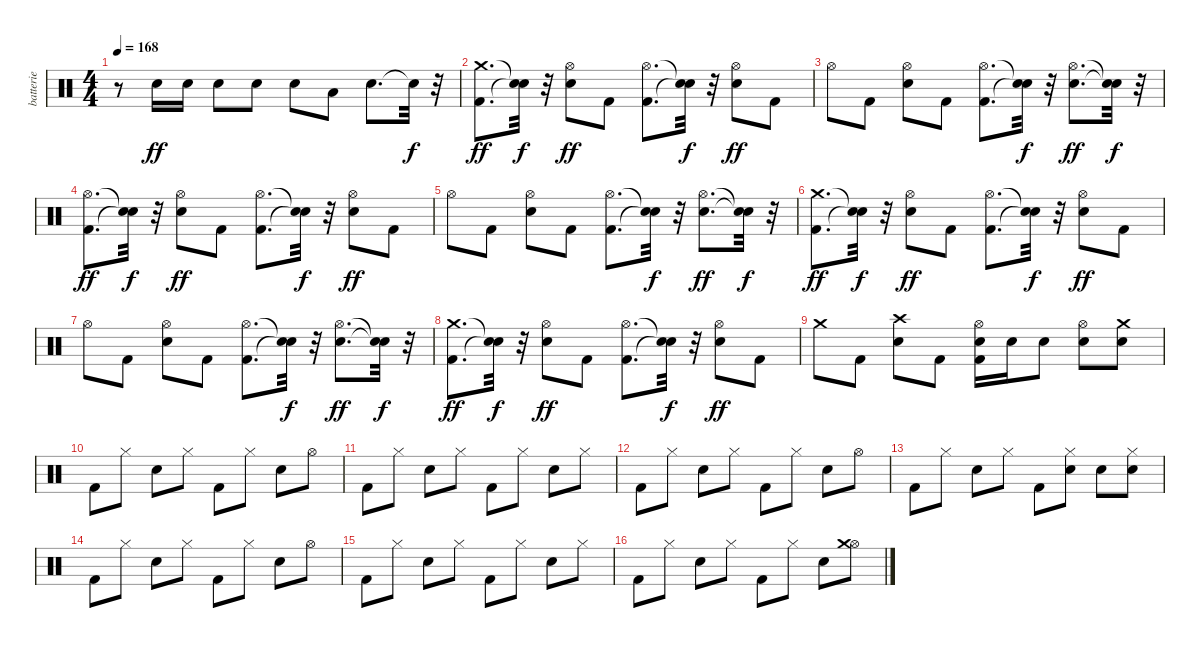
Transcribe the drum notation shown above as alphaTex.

\track ("batterie" "batterie") {instrument percussion}
\staff {score}
\articulation defaults
\ts (4 4)
\tempo 168
\clef neutral
\ks c
r.8{dy ff} "Electric Snare (hit)".16 "Electric Snare (hit)".16 "Electric Snare (hit)".8 "Electric Snare (hit)".8 "Electric Snare (hit)".8 "Low Floor Tom (hit)".8 "Electric Snare (hit)".8{d} "Snare (hit)"{t}.32{dy f} r.32 |
("Kick (hit) 2" "Crash medium (hit)").8{d dy ff} ("Snare (hit)"{t} "Snare (hit)"{t}).32{dy f} r.32 ("Electric Snare (hit)" "Hi-Hat (open)").8{dy ff} "Kick (hit) 2".8 ("Kick (hit) 2" "Hi-Hat (open)").8{d} ("Snare (hit)"{t} "Snare (hit)"{t}).32{dy f} r.32 ("Electric Snare (hit)" "Hi-Hat (open)").8{dy ff} "Kick (hit) 2".8 |
"Hi-Hat (open)".8 "Kick (hit) 2".8 ("Electric Snare (hit)" "Hi-Hat (open)").8 "Kick (hit) 2".8 ("Kick (hit) 2" "Hi-Hat (open)").8{d} ("Snare (hit)"{t} "Snare (hit)"{t}).32{dy f} r.32 ("Electric Snare (hit)" "Hi-Hat (open)").8{d dy ff} ("Snare (hit)"{t} "Snare (hit)"{t}).32{dy f} r.32 |
("Kick (hit) 2" "Hi-Hat (open)").8{d dy ff} ("Snare (hit)"{t} "Snare (hit)"{t}).32{dy f} r.32 ("Electric Snare (hit)" "Hi-Hat (open)").8{dy ff} "Kick (hit) 2".8 ("Kick (hit) 2" "Hi-Hat (open)").8{d} ("Snare (hit)"{t} "Snare (hit)"{t}).32{dy f} r.32 ("Electric Snare (hit)" "Hi-Hat (open)").8{dy ff} "Kick (hit) 2".8 |
"Hi-Hat (open)".8 "Kick (hit) 2".8 ("Electric Snare (hit)" "Hi-Hat (open)").8 "Kick (hit) 2".8 ("Kick (hit) 2" "Hi-Hat (open)").8{d} ("Snare (hit)"{t} "Snare (hit)"{t}).32{dy f} r.32 ("Electric Snare (hit)" "Hi-Hat (open)").8{d dy ff} ("Snare (hit)"{t} "Snare (hit)"{t}).32{dy f} r.32 |
("Kick (hit) 2" "Crash medium (hit)").8{d dy ff} ("Snare (hit)"{t} "Snare (hit)"{t}).32{dy f} r.32 ("Electric Snare (hit)" "Hi-Hat (open)").8{dy ff} "Kick (hit) 2".8 ("Kick (hit) 2" "Hi-Hat (open)").8{d} ("Snare (hit)"{t} "Snare (hit)"{t}).32{dy f} r.32 ("Electric Snare (hit)" "Hi-Hat (open)").8{dy ff} "Kick (hit) 2".8 |
"Hi-Hat (open)".8 "Kick (hit) 2".8 ("Electric Snare (hit)" "Hi-Hat (open)").8 "Kick (hit) 2".8 ("Kick (hit) 2" "Hi-Hat (open)").8{d} ("Snare (hit)"{t} "Snare (hit)"{t}).32{dy f} r.32 ("Electric Snare (hit)" "Hi-Hat (open)").8{d dy ff} ("Snare (hit)"{t} "Snare (hit)"{t}).32{dy f} r.32 |
("Kick (hit) 2" "Crash medium (hit)").8{d dy ff} ("Snare (hit)"{t} "Snare (hit)"{t}).32{dy f} r.32 ("Electric Snare (hit)" "Hi-Hat (open)").8{dy ff} "Kick (hit) 2".8 ("Kick (hit) 2" "Hi-Hat (open)").8{d} ("Snare (hit)"{t} "Snare (hit)"{t}).32{dy f} r.32 ("Electric Snare (hit)" "Hi-Hat (open)").8{dy ff} "Kick (hit) 2".8 |
"Crash medium (hit)".8 "Kick (hit) 2".8 ("Electric Snare (hit)" "Crash high (hit)").8 "Kick (hit) 2".8 ("Kick (hit) 2" "Electric Snare (hit)" "Hi-Hat (open)").16 "Electric Snare (hit)".16 "Electric Snare (hit)".8 ("Electric Snare (hit)" "Hi-Hat (open)").8 ("Electric Snare (hit)" "Crash medium (hit)").8 |
"Kick (hit) 2".8 "Hi-Hat (closed)".8 "Electric Snare (hit)".8 "Hi-Hat (closed)".8 "Kick (hit) 2".8 "Hi-Hat (closed)".8 "Electric Snare (hit)".8 "Hi-Hat (open)".8 |
"Kick (hit) 2".8 "Hi-Hat (closed)".8 "Electric Snare (hit)".8 "Hi-Hat (closed)".8 "Kick (hit) 2".8 "Hi-Hat (closed)".8 "Electric Snare (hit)".8 "Hi-Hat (closed)".8 |
"Kick (hit) 2".8 "Hi-Hat (closed)".8 "Electric Snare (hit)".8 "Hi-Hat (closed)".8 "Kick (hit) 2".8 "Hi-Hat (closed)".8 "Electric Snare (hit)".8 "Hi-Hat (open)".8 |
"Kick (hit) 2".8 "Hi-Hat (closed)".8 "Electric Snare (hit)".8 "Hi-Hat (closed)".8 "Kick (hit) 2".8 ("Electric Snare (hit)" "Hi-Hat (closed)").8 "Electric Snare (hit)".8 ("Electric Snare (hit)" "Hi-Hat (closed)").8 |
"Kick (hit) 2".8 "Hi-Hat (closed)".8 "Electric Snare (hit)".8 "Hi-Hat (closed)".8 "Kick (hit) 2".8 "Hi-Hat (closed)".8 "Electric Snare (hit)".8 "Hi-Hat (open)".8 |
"Kick (hit) 2".8 "Hi-Hat (closed)".8 "Electric Snare (hit)".8 "Hi-Hat (closed)".8 "Kick (hit) 2".8 "Hi-Hat (closed)".8 "Electric Snare (hit)".8 "Hi-Hat (closed)".8 |
"Kick (hit) 2".8 "Hi-Hat (closed)".8 "Electric Snare (hit)".8 "Hi-Hat (closed)".8 "Kick (hit) 2".8 "Hi-Hat (closed)".8 "Electric Snare (hit)".8 ("Hi-Hat (open)" "Crash medium (hit)").8
